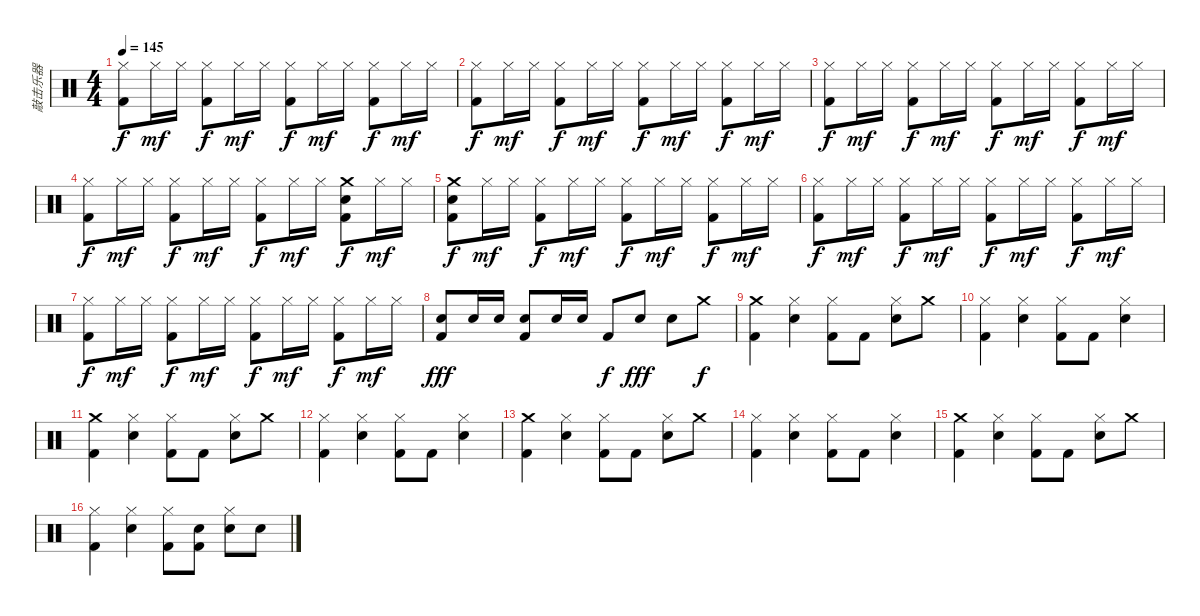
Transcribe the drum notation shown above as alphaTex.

\track ("敲击乐器" "敲击乐器") {instrument percussion}
\staff {score}
\articulation defaults
\ts (4 4)
\tempo 145
\clef neutral
\ks c
("Hi-Hat (closed)" "Kick (hit) 2").8{dy f} "Hi-Hat (closed)".16{dy mf} "Hi-Hat (closed)".16 ("Hi-Hat (closed)" "Kick (hit) 2").8{dy f} "Hi-Hat (closed)".16{dy mf} "Hi-Hat (closed)".16 ("Hi-Hat (closed)" "Kick (hit) 2").8{dy f} "Hi-Hat (closed)".16{dy mf} "Hi-Hat (closed)".16 ("Hi-Hat (closed)" "Kick (hit) 2").8{dy f} "Hi-Hat (closed)".16{dy mf} "Hi-Hat (closed)".16 |
("Hi-Hat (closed)" "Kick (hit) 2").8{dy f} "Hi-Hat (closed)".16{dy mf} "Hi-Hat (closed)".16 ("Hi-Hat (closed)" "Kick (hit) 2").8{dy f} "Hi-Hat (closed)".16{dy mf} "Hi-Hat (closed)".16 ("Hi-Hat (closed)" "Kick (hit) 2").8{dy f} "Hi-Hat (closed)".16{dy mf} "Hi-Hat (closed)".16 ("Hi-Hat (closed)" "Kick (hit) 2").8{dy f} "Hi-Hat (closed)".16{dy mf} "Hi-Hat (closed)".16 |
("Hi-Hat (closed)" "Kick (hit) 2").8{dy f} "Hi-Hat (closed)".16{dy mf} "Hi-Hat (closed)".16 ("Hi-Hat (closed)" "Kick (hit) 2").8{dy f} "Hi-Hat (closed)".16{dy mf} "Hi-Hat (closed)".16 ("Hi-Hat (closed)" "Kick (hit) 2").8{dy f} "Hi-Hat (closed)".16{dy mf} "Hi-Hat (closed)".16 ("Hi-Hat (closed)" "Kick (hit) 2").8{dy f} "Hi-Hat (closed)".16{dy mf} "Hi-Hat (closed)".16 |
("Hi-Hat (closed)" "Kick (hit) 2").8{dy f} "Hi-Hat (closed)".16{dy mf} "Hi-Hat (closed)".16 ("Hi-Hat (closed)" "Kick (hit) 2").8{dy f} "Hi-Hat (closed)".16{dy mf} "Hi-Hat (closed)".16 ("Hi-Hat (closed)" "Kick (hit) 2").8{dy f} "Hi-Hat (closed)".16{dy mf} "Hi-Hat (closed)".16 ("Crash medium (hit)" "Electric Snare (hit)" "Kick (hit) 2").8{dy f} "Hi-Hat (closed)".16{dy mf} "Hi-Hat (closed)".16 |
("Crash medium (hit)" "Electric Snare (hit)" "Kick (hit) 2").8{dy f} "Hi-Hat (closed)".16{dy mf} "Hi-Hat (closed)".16 ("Hi-Hat (closed)" "Kick (hit) 2").8{dy f} "Hi-Hat (closed)".16{dy mf} "Hi-Hat (closed)".16 ("Hi-Hat (closed)" "Kick (hit) 2").8{dy f} "Hi-Hat (closed)".16{dy mf} "Hi-Hat (closed)".16 ("Hi-Hat (closed)" "Kick (hit) 2").8{dy f} "Hi-Hat (closed)".16{dy mf} "Hi-Hat (closed)".16 |
("Hi-Hat (closed)" "Kick (hit) 2").8{dy f} "Hi-Hat (closed)".16{dy mf} "Hi-Hat (closed)".16 ("Hi-Hat (closed)" "Kick (hit) 2").8{dy f} "Hi-Hat (closed)".16{dy mf} "Hi-Hat (closed)".16 ("Hi-Hat (closed)" "Kick (hit) 2").8{dy f} "Hi-Hat (closed)".16{dy mf} "Hi-Hat (closed)".16 ("Hi-Hat (closed)" "Kick (hit) 2").8{dy f} "Hi-Hat (closed)".16{dy mf} "Hi-Hat (closed)".16 |
("Hi-Hat (closed)" "Kick (hit) 2").8{dy f} "Hi-Hat (closed)".16{dy mf} "Hi-Hat (closed)".16 ("Hi-Hat (closed)" "Kick (hit) 2").8{dy f} "Hi-Hat (closed)".16{dy mf} "Hi-Hat (closed)".16 ("Hi-Hat (closed)" "Kick (hit) 2").8{dy f} "Hi-Hat (closed)".16{dy mf} "Hi-Hat (closed)".16 ("Hi-Hat (closed)" "Kick (hit) 2").8{dy f} "Hi-Hat (closed)".16{dy mf} "Hi-Hat (closed)".16 |
("Electric Snare (hit)" "Kick (hit) 2").8{dy fff} "Electric Snare (hit)".16 "Electric Snare (hit)".16 ("Electric Snare (hit)" "Kick (hit) 2").8 "Electric Snare (hit)".16 "Electric Snare (hit)".16 "Kick (hit) 2".8{dy f} "Electric Snare (hit)".8{dy fff} "Electric Snare (hit)".8 "Crash medium (hit)".8{dy f} |
("Crash medium (hit)" "Kick (hit) 2").4 ("Hi-Hat (closed)" "Electric Snare (hit)").4 ("Hi-Hat (closed)" "Kick (hit) 2").8 "Kick (hit) 2".8 ("Hi-Hat (closed)" "Electric Snare (hit)").8 "Crash medium (hit)".8 |
("Hi-Hat (closed)" "Kick (hit) 2").4 ("Hi-Hat (closed)" "Electric Snare (hit)").4 ("Hi-Hat (closed)" "Kick (hit) 2").8 "Kick (hit) 2".8 ("Hi-Hat (closed)" "Electric Snare (hit)").4 |
("Crash medium (hit)" "Kick (hit) 2").4 ("Hi-Hat (closed)" "Electric Snare (hit)").4 ("Hi-Hat (closed)" "Kick (hit) 2").8 "Kick (hit) 2".8 ("Hi-Hat (closed)" "Electric Snare (hit)").8 "Crash medium (hit)".8 |
("Hi-Hat (closed)" "Kick (hit) 2").4 ("Hi-Hat (closed)" "Electric Snare (hit)").4 ("Hi-Hat (closed)" "Kick (hit) 2").8 "Kick (hit) 2".8 ("Hi-Hat (closed)" "Electric Snare (hit)").4 |
("Crash medium (hit)" "Kick (hit) 2").4 ("Hi-Hat (closed)" "Electric Snare (hit)").4 ("Hi-Hat (closed)" "Kick (hit) 2").8 "Kick (hit) 2".8 ("Hi-Hat (closed)" "Electric Snare (hit)").8 "Crash medium (hit)".8 |
("Hi-Hat (closed)" "Kick (hit) 2").4 ("Hi-Hat (closed)" "Electric Snare (hit)").4 ("Hi-Hat (closed)" "Kick (hit) 2").8 "Kick (hit) 2".8 ("Hi-Hat (closed)" "Electric Snare (hit)").4 |
("Crash medium (hit)" "Kick (hit) 2").4 ("Hi-Hat (closed)" "Electric Snare (hit)").4 ("Hi-Hat (closed)" "Kick (hit) 2").8 "Kick (hit) 2".8 ("Hi-Hat (closed)" "Electric Snare (hit)").8 "Crash medium (hit)".8 |
("Hi-Hat (closed)" "Kick (hit) 2").4 ("Hi-Hat (closed)" "Electric Snare (hit)").4 ("Hi-Hat (closed)" "Kick (hit) 2").8 ("Electric Snare (hit)" "Kick (hit) 2").8 ("Hi-Hat (closed)" "Electric Snare (hit)").8 "Electric Snare (hit)".8
